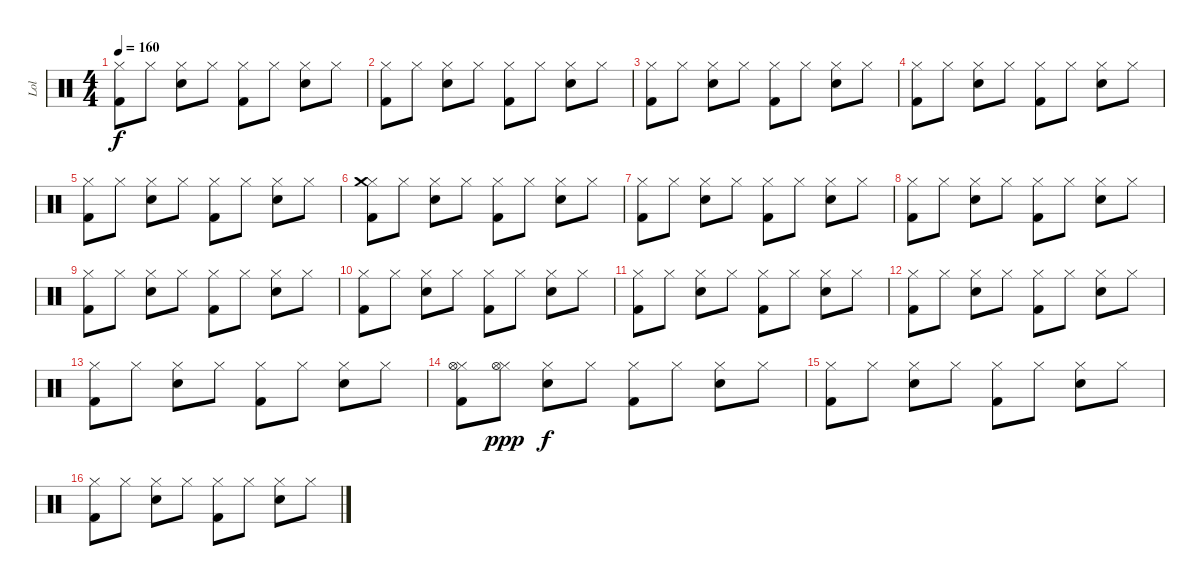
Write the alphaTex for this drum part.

\track ("Lol" "Lol") {instrument percussion}
\staff {score}
\articulation defaults
\ts (4 4)
\tempo 160
\clef neutral
\ks c
("Kick (hit) 2" "Hi-Hat (closed)").8{dy f} "Hi-Hat (closed)".8 ("Snare (hit) 2" "Hi-Hat (closed)").8 "Hi-Hat (closed)".8 ("Kick (hit) 2" "Hi-Hat (closed)").8 "Hi-Hat (closed)".8 ("Snare (hit) 2" "Hi-Hat (closed)").8 "Hi-Hat (closed)".8 |
("Kick (hit) 2" "Hi-Hat (closed)").8 "Hi-Hat (closed)".8 ("Snare (hit) 2" "Hi-Hat (closed)").8 "Hi-Hat (closed)".8 ("Kick (hit) 2" "Hi-Hat (closed)").8 "Hi-Hat (closed)".8 ("Snare (hit) 2" "Hi-Hat (closed)").8 "Hi-Hat (closed)".8 |
("Kick (hit) 2" "Hi-Hat (closed)").8 "Hi-Hat (closed)".8 ("Snare (hit) 2" "Hi-Hat (closed)").8 "Hi-Hat (closed)".8 ("Kick (hit) 2" "Hi-Hat (closed)").8 "Hi-Hat (closed)".8 ("Snare (hit) 2" "Hi-Hat (closed)").8 "Hi-Hat (closed)".8 |
("Kick (hit) 2" "Hi-Hat (closed)").8 "Hi-Hat (closed)".8 ("Snare (hit) 2" "Hi-Hat (closed)").8 "Hi-Hat (closed)".8 ("Kick (hit) 2" "Hi-Hat (closed)").8 "Hi-Hat (closed)".8 ("Snare (hit) 2" "Hi-Hat (closed)").8 "Hi-Hat (closed)".8 |
("Kick (hit) 2" "Hi-Hat (closed)").8 "Hi-Hat (closed)".8 ("Snare (hit) 2" "Hi-Hat (closed)").8 "Hi-Hat (closed)".8 ("Kick (hit) 2" "Hi-Hat (closed)").8 "Hi-Hat (closed)".8 ("Snare (hit) 2" "Hi-Hat (closed)").8 "Hi-Hat (closed)".8 |
("Kick (hit) 2" "Hi-Hat (closed)" "Crash medium (hit)").8 "Hi-Hat (closed)".8 ("Snare (hit) 2" "Hi-Hat (closed)").8 "Hi-Hat (closed)".8 ("Kick (hit) 2" "Hi-Hat (closed)").8 "Hi-Hat (closed)".8 ("Snare (hit) 2" "Hi-Hat (closed)").8 "Hi-Hat (closed)".8 |
("Kick (hit) 2" "Hi-Hat (closed)").8 "Hi-Hat (closed)".8 ("Snare (hit) 2" "Hi-Hat (closed)").8 "Hi-Hat (closed)".8 ("Kick (hit) 2" "Hi-Hat (closed)").8 "Hi-Hat (closed)".8 ("Snare (hit) 2" "Hi-Hat (closed)").8 "Hi-Hat (closed)".8 |
("Kick (hit) 2" "Hi-Hat (closed)").8 "Hi-Hat (closed)".8 ("Snare (hit) 2" "Hi-Hat (closed)").8 "Hi-Hat (closed)".8 ("Kick (hit) 2" "Hi-Hat (closed)").8 "Hi-Hat (closed)".8 ("Snare (hit) 2" "Hi-Hat (closed)").8 "Hi-Hat (closed)".8 |
("Kick (hit) 2" "Hi-Hat (closed)").8 "Hi-Hat (closed)".8 ("Snare (hit) 2" "Hi-Hat (closed)").8 "Hi-Hat (closed)".8 ("Kick (hit) 2" "Hi-Hat (closed)").8 "Hi-Hat (closed)".8 ("Snare (hit) 2" "Hi-Hat (closed)").8 "Hi-Hat (closed)".8 |
("Kick (hit) 2" "Hi-Hat (closed)").8 "Hi-Hat (closed)".8 ("Snare (hit) 2" "Hi-Hat (closed)").8 "Hi-Hat (closed)".8 ("Kick (hit) 2" "Hi-Hat (closed)").8 "Hi-Hat (closed)".8 ("Snare (hit) 2" "Hi-Hat (closed)").8 "Hi-Hat (closed)".8 |
("Kick (hit) 2" "Hi-Hat (closed)").8 "Hi-Hat (closed)".8 ("Snare (hit) 2" "Hi-Hat (closed)").8 "Hi-Hat (closed)".8 ("Kick (hit) 2" "Hi-Hat (closed)").8 "Hi-Hat (closed)".8 ("Snare (hit) 2" "Hi-Hat (closed)").8 "Hi-Hat (closed)".8 |
("Kick (hit) 2" "Hi-Hat (closed)").8 "Hi-Hat (closed)".8 ("Snare (hit) 2" "Hi-Hat (closed)").8 "Hi-Hat (closed)".8 ("Kick (hit) 2" "Hi-Hat (closed)").8 "Hi-Hat (closed)".8 ("Snare (hit) 2" "Hi-Hat (closed)").8 "Hi-Hat (closed)".8 |
("Kick (hit) 2" "Hi-Hat (closed)").8 "Hi-Hat (closed)".8 ("Snare (hit) 2" "Hi-Hat (closed)").8 "Hi-Hat (closed)".8 ("Kick (hit) 2" "Hi-Hat (closed)").8 "Hi-Hat (closed)".8 ("Snare (hit) 2" "Hi-Hat (closed)").8 "Hi-Hat (closed)".8 |
("Kick (hit) 2" "Hi-Hat (closed)" "Hi-Hat (open)").8 ("Hi-Hat (closed)" "Hi-Hat (open)").8{dy ppp} ("Snare (hit) 2" "Hi-Hat (closed)").8{dy f} "Hi-Hat (closed)".8 ("Kick (hit) 2" "Hi-Hat (closed)").8 "Hi-Hat (closed)".8 ("Snare (hit) 2" "Hi-Hat (closed)").8 "Hi-Hat (closed)".8 |
("Kick (hit) 2" "Hi-Hat (closed)").8 "Hi-Hat (closed)".8 ("Snare (hit) 2" "Hi-Hat (closed)").8 "Hi-Hat (closed)".8 ("Kick (hit) 2" "Hi-Hat (closed)").8 "Hi-Hat (closed)".8 ("Snare (hit) 2" "Hi-Hat (closed)").8 "Hi-Hat (closed)".8 |
("Kick (hit) 2" "Hi-Hat (closed)").8 "Hi-Hat (closed)".8 ("Snare (hit) 2" "Hi-Hat (closed)").8 "Hi-Hat (closed)".8 ("Kick (hit) 2" "Hi-Hat (closed)").8 "Hi-Hat (closed)".8 ("Snare (hit) 2" "Hi-Hat (closed)").8 "Hi-Hat (closed)".8
